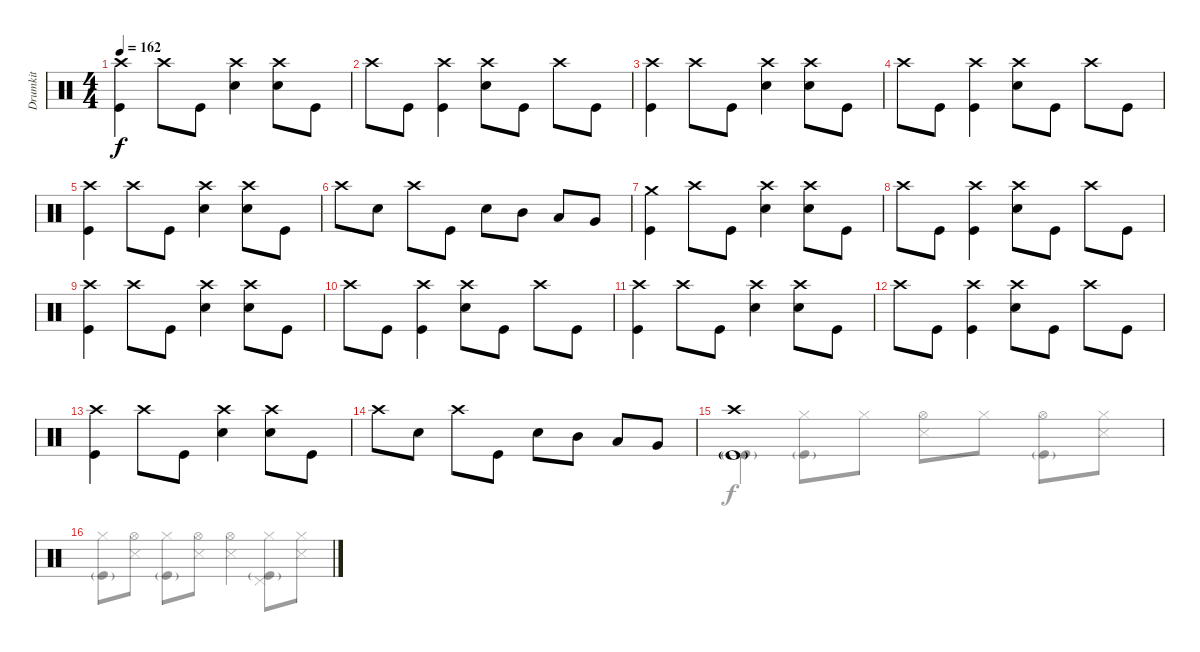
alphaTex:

\track ("Drumkit" "Drumkit") {instrument percussion}
\staff {score}
\articulation defaults
\voice
\ts (4 4)
\tempo 162
\clef neutral
\ks c
("Kick (hit)" "Crash high (hit)").4{dy f} "Crash high (hit)".8 "Kick (hit)".8 ("Snare (hit) 2" "Crash high (hit)").4 ("Snare (hit) 2" "Crash high (hit)").8 "Kick (hit)".8 |
"Crash high (hit)".8 "Kick (hit)".8 ("Kick (hit)" "Crash high (hit)").4 ("Snare (hit) 2" "Crash high (hit)").8 "Kick (hit)".8 "Crash high (hit)".8 "Kick (hit)".8 |
("Kick (hit)" "Crash high (hit)").4 "Crash high (hit)".8 "Kick (hit)".8 ("Snare (hit) 2" "Crash high (hit)").4 ("Snare (hit) 2" "Crash high (hit)").8 "Kick (hit)".8 |
"Crash high (hit)".8 "Kick (hit)".8 ("Kick (hit)" "Crash high (hit)").4 ("Snare (hit) 2" "Crash high (hit)").8 "Kick (hit)".8 "Crash high (hit)".8 "Kick (hit)".8 |
("Kick (hit)" "Crash high (hit)").4 "Crash high (hit)".8 "Kick (hit)".8 ("Snare (hit) 2" "Crash high (hit)").4 ("Snare (hit) 2" "Crash high (hit)").8 "Kick (hit)".8 |
"Crash high (hit)".8 "Snare (hit) 2".8 "Crash high (hit)".8 "Kick (hit)".8 "Snare (hit) 2".8 "Mid Tom (hit)".8 "Low Tom (hit)".8 "Very Low Tom (hit)".8 |
("Kick (hit)" "Crash medium (hit)").4 "Crash high (hit)".8 "Kick (hit)".8 ("Snare (hit) 2" "Crash high (hit)").4 ("Snare (hit) 2" "Crash high (hit)").8 "Kick (hit)".8 |
"Crash high (hit)".8 "Kick (hit)".8 ("Kick (hit)" "Crash high (hit)").4 ("Snare (hit) 2" "Crash high (hit)").8 "Kick (hit)".8 "Crash high (hit)".8 "Kick (hit)".8 |
("Kick (hit)" "Crash high (hit)").4 "Crash high (hit)".8 "Kick (hit)".8 ("Snare (hit) 2" "Crash high (hit)").4 ("Snare (hit) 2" "Crash high (hit)").8 "Kick (hit)".8 |
"Crash high (hit)".8 "Kick (hit)".8 ("Kick (hit)" "Crash high (hit)").4 ("Snare (hit) 2" "Crash high (hit)").8 "Kick (hit)".8 "Crash high (hit)".8 "Kick (hit)".8 |
("Kick (hit)" "Crash high (hit)").4 "Crash high (hit)".8 "Kick (hit)".8 ("Snare (hit) 2" "Crash high (hit)").4 ("Snare (hit) 2" "Crash high (hit)").8 "Kick (hit)".8 |
"Crash high (hit)".8 "Kick (hit)".8 ("Kick (hit)" "Crash high (hit)").4 ("Snare (hit) 2" "Crash high (hit)").8 "Kick (hit)".8 "Crash high (hit)".8 "Kick (hit)".8 |
("Kick (hit)" "Crash high (hit)").4 "Crash high (hit)".8 "Kick (hit)".8 ("Snare (hit) 2" "Crash high (hit)").4 ("Snare (hit) 2" "Crash high (hit)").8 "Kick (hit)".8 |
"Crash high (hit)".8 "Snare (hit) 2".8 "Crash high (hit)".8 "Kick (hit)".8 "Snare (hit) 2".8 "Mid Tom (hit)".8 "Low Tom (hit)".8 "Very Low Tom (hit)".8 |
("Kick (hit)"{g} "Crash high (hit)").1 |
\voice
\clef neutral
\ottava regular
\simile none
\ks c
|
|
|
|
|
|
|
|
|
|
|
|
|
|
"Kick (hit)"{g}.4{dy f} ("Kick (hit)"{g} "Hi-Hat (closed)").8 "Hi-Hat (closed)".8 ("Snare (side stick) 3" "Hi-Hat (open)").8 "Hi-Hat (closed)".8 ("Kick (hit)"{g} "Hi-Hat (open)").8 ("Snare (side stick) 3" "Hi-Hat (closed)").8 |
("Kick (hit)"{g} "Hi-Hat (closed)").8 ("Snare (side stick) 3" "Hi-Hat (open)").8 ("Kick (hit)"{g} "Hi-Hat (closed)").8 ("Snare (side stick) 3" "Hi-Hat (open)").8 ("Snare (side stick) 3" "Hi-Hat (open)").4 ("Kick (hit)"{g} "Pedal Hi-Hat (hit)" "Hi-Hat (closed)").8 ("Snare (side stick) 3" "Hi-Hat (closed)").8
